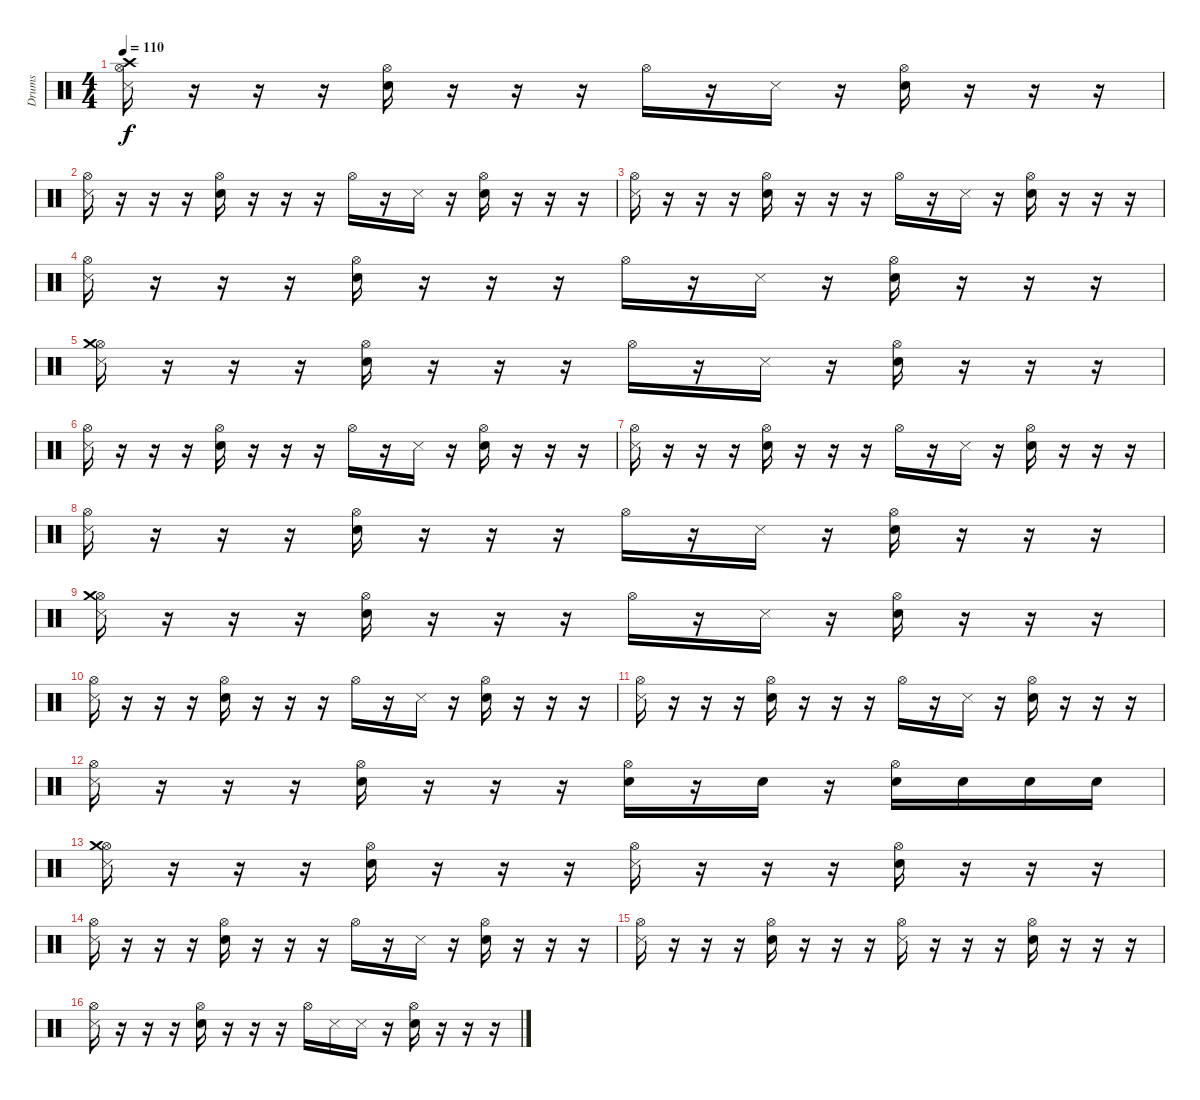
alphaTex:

\track ("Drums" "Drums") {instrument percussion}
\staff {score}
\articulation defaults
\ts (4 4)
\tempo 110
\clef neutral
\ks c
("Hi-Hat (open)" "Crash high (hit)" "Metronome (hit)").16{dy f} r.16 r.16 r.16 ("Hi-Hat (open)" "Electric Snare (hit)").16 r.16 r.16 r.16 "Hi-Hat (open)".16 r.16 "Metronome (hit)".16 r.16 ("Hi-Hat (open)" "Electric Snare (hit)").16 r.16 r.16 r.16 |
("Hi-Hat (open)" "Metronome (hit)").16 r.16 r.16 r.16 ("Hi-Hat (open)" "Electric Snare (hit)").16 r.16 r.16 r.16 "Hi-Hat (open)".16 r.16 "Metronome (hit)".16 r.16 ("Hi-Hat (open)" "Electric Snare (hit)").16 r.16 r.16 r.16 |
("Hi-Hat (open)" "Metronome (hit)").16 r.16 r.16 r.16 ("Hi-Hat (open)" "Electric Snare (hit)").16 r.16 r.16 r.16 "Hi-Hat (open)".16 r.16 "Metronome (hit)".16 r.16 ("Hi-Hat (open)" "Electric Snare (hit)").16 r.16 r.16 r.16 |
("Hi-Hat (open)" "Metronome (hit)").16 r.16 r.16 r.16 ("Hi-Hat (open)" "Electric Snare (hit)").16 r.16 r.16 r.16 "Hi-Hat (open)".16 r.16 "Metronome (hit)".16 r.16 ("Hi-Hat (open)" "Electric Snare (hit)").16 r.16 r.16 r.16 |
("Hi-Hat (open)" "Crash medium (hit)" "Metronome (hit)").16 r.16 r.16 r.16 ("Hi-Hat (open)" "Electric Snare (hit)").16 r.16 r.16 r.16 "Hi-Hat (open)".16 r.16 "Metronome (hit)".16 r.16 ("Hi-Hat (open)" "Electric Snare (hit)").16 r.16 r.16 r.16 |
("Hi-Hat (open)" "Metronome (hit)").16 r.16 r.16 r.16 ("Hi-Hat (open)" "Electric Snare (hit)").16 r.16 r.16 r.16 "Hi-Hat (open)".16 r.16 "Metronome (hit)".16 r.16 ("Hi-Hat (open)" "Electric Snare (hit)").16 r.16 r.16 r.16 |
("Hi-Hat (open)" "Metronome (hit)").16 r.16 r.16 r.16 ("Hi-Hat (open)" "Electric Snare (hit)").16 r.16 r.16 r.16 "Hi-Hat (open)".16 r.16 "Metronome (hit)".16 r.16 ("Hi-Hat (open)" "Electric Snare (hit)").16 r.16 r.16 r.16 |
("Hi-Hat (open)" "Metronome (hit)").16 r.16 r.16 r.16 ("Hi-Hat (open)" "Electric Snare (hit)").16 r.16 r.16 r.16 "Hi-Hat (open)".16 r.16 "Metronome (hit)".16 r.16 ("Hi-Hat (open)" "Electric Snare (hit)").16 r.16 r.16 r.16 |
("Hi-Hat (open)" "Crash medium (hit)" "Metronome (hit)").16 r.16 r.16 r.16 ("Hi-Hat (open)" "Electric Snare (hit)").16 r.16 r.16 r.16 "Hi-Hat (open)".16 r.16 "Metronome (hit)".16 r.16 ("Hi-Hat (open)" "Electric Snare (hit)").16 r.16 r.16 r.16 |
("Hi-Hat (open)" "Metronome (hit)").16 r.16 r.16 r.16 ("Hi-Hat (open)" "Electric Snare (hit)").16 r.16 r.16 r.16 "Hi-Hat (open)".16 r.16 "Metronome (hit)".16 r.16 ("Hi-Hat (open)" "Electric Snare (hit)").16 r.16 r.16 r.16 |
("Hi-Hat (open)" "Metronome (hit)").16 r.16 r.16 r.16 ("Hi-Hat (open)" "Electric Snare (hit)").16 r.16 r.16 r.16 "Hi-Hat (open)".16 r.16 "Metronome (hit)".16 r.16 ("Hi-Hat (open)" "Electric Snare (hit)").16 r.16 r.16 r.16 |
("Hi-Hat (open)" "Metronome (hit)").16 r.16 r.16 r.16 ("Hi-Hat (open)" "Electric Snare (hit)").16 r.16 r.16 r.16 ("Hi-Hat (open)" "Electric Snare (hit)").16 r.16 "Electric Snare (hit)".16 r.16 ("Hi-Hat (open)" "Electric Snare (hit)").16 "Electric Snare (hit)".16 "Electric Snare (hit)".16 "Electric Snare (hit)".16 |
("Hi-Hat (open)" "Crash medium (hit)" "Metronome (hit)").16 r.16 r.16 r.16 ("Hi-Hat (open)" "Electric Snare (hit)").16 r.16 r.16 r.16 ("Hi-Hat (open)" "Metronome (hit)").16 r.16 r.16 r.16 ("Hi-Hat (open)" "Electric Snare (hit)").16 r.16 r.16 r.16 |
("Hi-Hat (open)" "Metronome (hit)").16 r.16 r.16 r.16 ("Hi-Hat (open)" "Electric Snare (hit)").16 r.16 r.16 r.16 "Hi-Hat (open)".16 r.16 "Metronome (hit)".16 r.16 ("Hi-Hat (open)" "Electric Snare (hit)").16 r.16 r.16 r.16 |
("Hi-Hat (open)" "Metronome (hit)").16 r.16 r.16 r.16 ("Hi-Hat (open)" "Electric Snare (hit)").16 r.16 r.16 r.16 ("Hi-Hat (open)" "Metronome (hit)").16 r.16 r.16 r.16 ("Hi-Hat (open)" "Electric Snare (hit)").16 r.16 r.16 r.16 |
("Hi-Hat (open)" "Metronome (hit)").16 r.16 r.16 r.16 ("Hi-Hat (open)" "Electric Snare (hit)").16 r.16 r.16 r.16 "Hi-Hat (open)".16 "Metronome (hit)".16 "Metronome (hit)".16 r.16 ("Hi-Hat (open)" "Electric Snare (hit)").16 r.16 r.16 r.16
